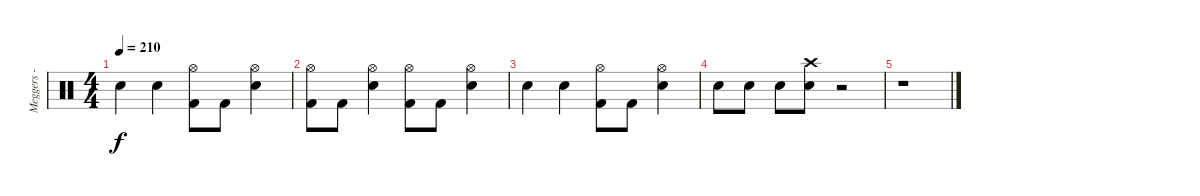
\track ("Meggers - Drums" "Meggers - ") {instrument percussion}
\staff {score}
\articulation defaults
\ts (4 4)
\tempo 210
\clef neutral
\ks c "Electric Snare (hit)".4{dy f} "Electric Snare (hit)".4
("Hi-Hat (open)" "Kick (hit) 2").8 "Kick (hit) 2".8 ("Hi-Hat (open)" "Electric Snare (hit)").4 |
("Hi-Hat (open)" "Kick (hit) 2").8 "Kick (hit) 2".8 ("Hi-Hat (open)" "Electric Snare (hit)").4 ("Hi-Hat (open)" "Kick (hit) 2").8 "Kick (hit) 2".8 ("Hi-Hat (open)" "Electric Snare (hit)").4 |
"Electric Snare (hit)".4 "Electric Snare (hit)".4 ("Hi-Hat (open)" "Kick (hit) 2").8 "Kick (hit) 2".8 ("Hi-Hat (open)" "Electric Snare (hit)").4 |
"Electric Snare (hit)".8 "Electric Snare (hit)".8 "Electric Snare (hit)".8 ("Crash high (hit)" "Electric Snare (hit)").8 r.2 |
r.1
